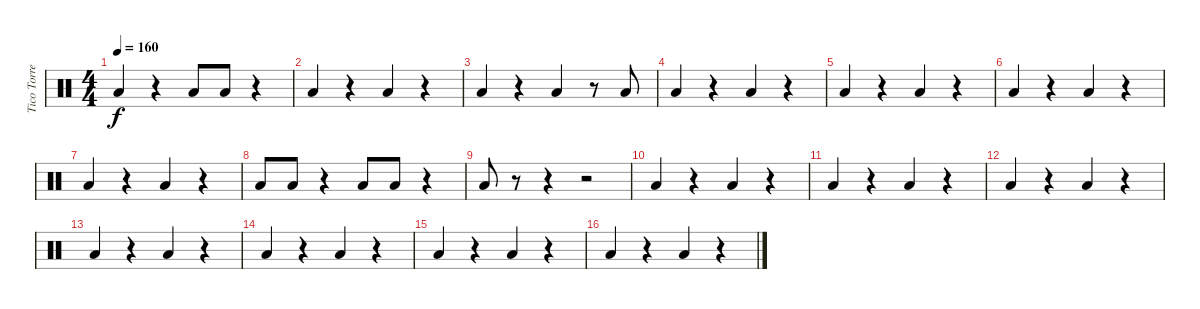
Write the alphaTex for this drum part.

\track ("Tico Torres" "Tico Torre") {instrument percussion}
\staff {score}
\articulation defaults
\ts (4 4)
\tempo 160
\clef neutral
\ks c "Low Floor Tom (hit)".4{dy f}
r.4 "Low Floor Tom (hit)".8 "Low Floor Tom (hit)".8 r.4 |
"Low Floor Tom (hit)".4 r.4 "Low Floor Tom (hit)".4 r.4 |
"Low Floor Tom (hit)".4 r.4 "Low Floor Tom (hit)".4 r.8 "Low Floor Tom (hit)".8 |
"Low Floor Tom (hit)".4 r.4 "Low Floor Tom (hit)".4 r.4 |
"Low Floor Tom (hit)".4 r.4 "Low Floor Tom (hit)".4 r.4 |
"Low Floor Tom (hit)".4 r.4 "Low Floor Tom (hit)".4 r.4 |
"Low Floor Tom (hit)".4 r.4 "Low Floor Tom (hit)".4 r.4 |
"Low Floor Tom (hit)".8 "Low Floor Tom (hit)".8 r.4 "Low Floor Tom (hit)".8 "Low Floor Tom (hit)".8 r.4 |
"Low Floor Tom (hit)".8 r.8 r.4 r.2 |
"Low Floor Tom (hit)".4 r.4 "Low Floor Tom (hit)".4 r.4 |
"Low Floor Tom (hit)".4 r.4 "Low Floor Tom (hit)".4 r.4 |
"Low Floor Tom (hit)".4 r.4 "Low Floor Tom (hit)".4 r.4 |
"Low Floor Tom (hit)".4 r.4 "Low Floor Tom (hit)".4 r.4 |
"Low Floor Tom (hit)".4 r.4 "Low Floor Tom (hit)".4 r.4 |
"Low Floor Tom (hit)".4 r.4 "Low Floor Tom (hit)".4 r.4 |
"Low Floor Tom (hit)".4 r.4 "Low Floor Tom (hit)".4 r.4
